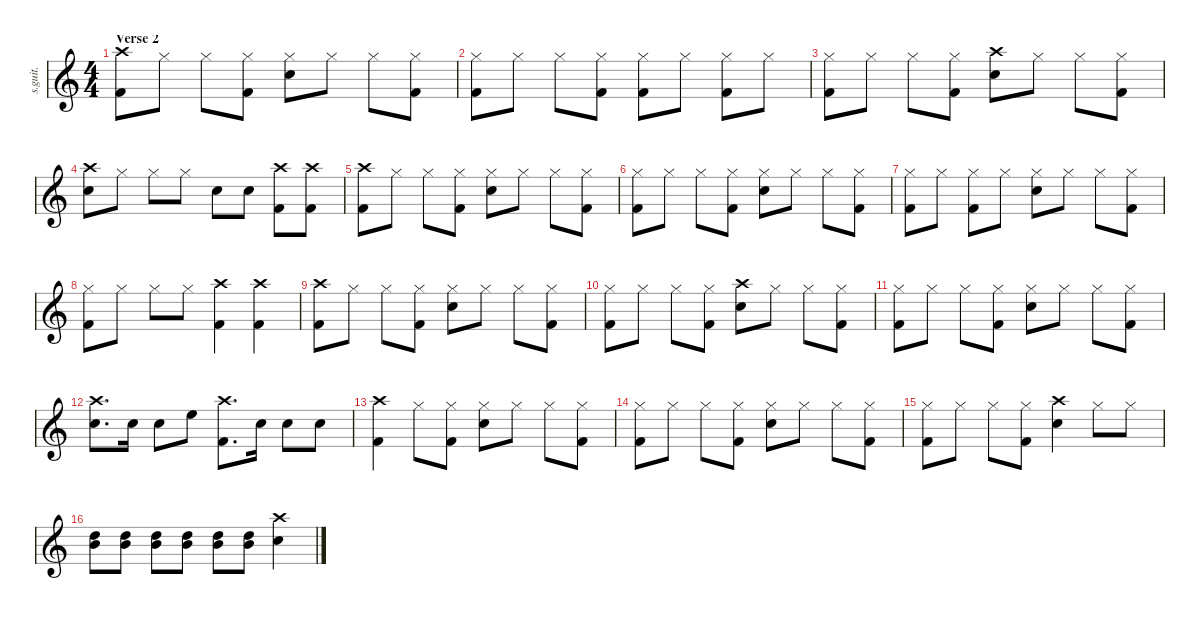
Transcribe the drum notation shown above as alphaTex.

\defaultSystemsLayout 4
\hideDynamics
\bracketExtendMode nobrackets
\track ("Lars Ulrich - Drumzzz" "s.guit.") {instrument percussion}
\staff {score}
\articulation defaults
\ts (4 4)
\section ("" "Verse 2")
\tempo (113 hide)
\clef g2
\ks c
("Crash high (hit)" "Kick (hit) 2").8{lyrics (0 "") lyrics (1 "") lyrics (2 "") lyrics (3 "") lyrics (4 "") dy f} "Hi-Hat (closed)".8{lyrics (0 "") lyrics (1 "") lyrics (2 "") lyrics (3 "") lyrics (4 "")} "Hi-Hat (closed)".8{lyrics (0 "") lyrics (1 "") lyrics (2 "") lyrics (3 "") lyrics (4 "")} ("Hi-Hat (closed)" "Kick (hit) 2").8{lyrics (0 "") lyrics (1 "") lyrics (2 "") lyrics (3 "") lyrics (4 "")} ("Hi-Hat (closed)" "Snare (hit) 2").8{lyrics (0 "") lyrics (1 "") lyrics (2 "") lyrics (3 "") lyrics (4 "")} "Hi-Hat (closed)".8{lyrics (0 "") lyrics (1 "") lyrics (2 "") lyrics (3 "") lyrics (4 "")} "Hi-Hat (closed)".8{lyrics (0 "") lyrics (1 "") lyrics (2 "") lyrics (3 "") lyrics (4 "")} ("Hi-Hat (closed)" "Kick (hit) 2").8{lyrics (0 "") lyrics (1 "") lyrics (2 "") lyrics (3 "") lyrics (4 "")} |
("Hi-Hat (closed)" "Kick (hit) 2").8{lyrics (0 "") lyrics (1 "") lyrics (2 "") lyrics (3 "") lyrics (4 "")} "Hi-Hat (closed)".8{lyrics (0 "") lyrics (1 "") lyrics (2 "") lyrics (3 "") lyrics (4 "")} "Hi-Hat (closed)".8{lyrics (0 "") lyrics (1 "") lyrics (2 "") lyrics (3 "") lyrics (4 "")} ("Hi-Hat (closed)" "Kick (hit) 2").8{lyrics (0 "") lyrics (1 "") lyrics (2 "") lyrics (3 "") lyrics (4 "")} ("Hi-Hat (closed)" "Kick (hit) 2").8{lyrics (0 "") lyrics (1 "") lyrics (2 "") lyrics (3 "") lyrics (4 "")} "Hi-Hat (closed)".8{lyrics (0 "") lyrics (1 "") lyrics (2 "") lyrics (3 "") lyrics (4 "")} ("Hi-Hat (closed)" "Kick (hit) 2").8{lyrics (0 "") lyrics (1 "") lyrics (2 "") lyrics (3 "") lyrics (4 "")} "Hi-Hat (closed)".8{lyrics (0 "") lyrics (1 "") lyrics (2 "") lyrics (3 "") lyrics (4 "")} |
("Hi-Hat (closed)" "Kick (hit) 2").8{lyrics (0 "") lyrics (1 "") lyrics (2 "") lyrics (3 "") lyrics (4 "")} "Hi-Hat (closed)".8{lyrics (0 "") lyrics (1 "") lyrics (2 "") lyrics (3 "") lyrics (4 "")} "Hi-Hat (closed)".8{lyrics (0 "") lyrics (1 "") lyrics (2 "") lyrics (3 "") lyrics (4 "")} ("Hi-Hat (closed)" "Kick (hit) 2").8{lyrics (0 "") lyrics (1 "") lyrics (2 "") lyrics (3 "") lyrics (4 "")} ("Crash high (hit)" "Snare (hit) 2").8{lyrics (0 "") lyrics (1 "") lyrics (2 "") lyrics (3 "") lyrics (4 "")} "Hi-Hat (closed)".8{lyrics (0 "") lyrics (1 "") lyrics (2 "") lyrics (3 "") lyrics (4 "")} "Hi-Hat (closed)".8{lyrics (0 "") lyrics (1 "") lyrics (2 "") lyrics (3 "") lyrics (4 "")} ("Hi-Hat (closed)" "Kick (hit) 2").8{lyrics (0 "") lyrics (1 "") lyrics (2 "") lyrics (3 "") lyrics (4 "")} |
("Crash high (hit)" "Snare (hit) 2").8{lyrics (0 "") lyrics (1 "") lyrics (2 "") lyrics (3 "") lyrics (4 "")} "Hi-Hat (closed)".8{lyrics (0 "") lyrics (1 "") lyrics (2 "") lyrics (3 "") lyrics (4 "")} "Hi-Hat (closed)".8{lyrics (0 "") lyrics (1 "") lyrics (2 "") lyrics (3 "") lyrics (4 "")} "Hi-Hat (closed)".8{lyrics (0 "") lyrics (1 "") lyrics (2 "") lyrics (3 "") lyrics (4 "")} "Snare (hit) 2".8{lyrics (0 "") lyrics (1 "") lyrics (2 "") lyrics (3 "") lyrics (4 "")} "Snare (hit) 2".8{lyrics (0 "") lyrics (1 "") lyrics (2 "") lyrics (3 "") lyrics (4 "")} ("Crash high (hit)" "Kick (hit) 2").8{lyrics (0 "") lyrics (1 "") lyrics (2 "") lyrics (3 "") lyrics (4 "")} ("Crash high (hit)" "Kick (hit) 2").8{lyrics (0 "") lyrics (1 "") lyrics (2 "") lyrics (3 "") lyrics (4 "")} |
("Crash high (hit)" "Kick (hit) 2").8{lyrics (0 "") lyrics (1 "") lyrics (2 "") lyrics (3 "") lyrics (4 "")} "Hi-Hat (closed)".8{lyrics (0 "") lyrics (1 "") lyrics (2 "") lyrics (3 "") lyrics (4 "")} "Hi-Hat (closed)".8{lyrics (0 "") lyrics (1 "") lyrics (2 "") lyrics (3 "") lyrics (4 "")} ("Hi-Hat (closed)" "Kick (hit) 2").8{lyrics (0 "") lyrics (1 "") lyrics (2 "") lyrics (3 "") lyrics (4 "")} ("Hi-Hat (closed)" "Snare (hit) 2").8{lyrics (0 "") lyrics (1 "") lyrics (2 "") lyrics (3 "") lyrics (4 "")} "Hi-Hat (closed)".8{lyrics (0 "") lyrics (1 "") lyrics (2 "") lyrics (3 "") lyrics (4 "")} "Hi-Hat (closed)".8{lyrics (0 "") lyrics (1 "") lyrics (2 "") lyrics (3 "") lyrics (4 "")} ("Hi-Hat (closed)" "Kick (hit) 2").8{lyrics (0 "") lyrics (1 "") lyrics (2 "") lyrics (3 "") lyrics (4 "")} |
("Hi-Hat (closed)" "Kick (hit) 2").8{lyrics (0 "") lyrics (1 "") lyrics (2 "") lyrics (3 "") lyrics (4 "")} "Hi-Hat (closed)".8{lyrics (0 "") lyrics (1 "") lyrics (2 "") lyrics (3 "") lyrics (4 "")} "Hi-Hat (closed)".8{lyrics (0 "") lyrics (1 "") lyrics (2 "") lyrics (3 "") lyrics (4 "")} ("Hi-Hat (closed)" "Kick (hit) 2").8{lyrics (0 "") lyrics (1 "") lyrics (2 "") lyrics (3 "") lyrics (4 "")} ("Hi-Hat (closed)" "Snare (hit) 2").8{lyrics (0 "") lyrics (1 "") lyrics (2 "") lyrics (3 "") lyrics (4 "")} "Hi-Hat (closed)".8{lyrics (0 "") lyrics (1 "") lyrics (2 "") lyrics (3 "") lyrics (4 "")} "Hi-Hat (closed)".8{lyrics (0 "") lyrics (1 "") lyrics (2 "") lyrics (3 "") lyrics (4 "")} ("Hi-Hat (closed)" "Kick (hit) 2").8{lyrics (0 "") lyrics (1 "") lyrics (2 "") lyrics (3 "") lyrics (4 "")} |
("Hi-Hat (closed)" "Kick (hit) 2").8{lyrics (0 "") lyrics (1 "") lyrics (2 "") lyrics (3 "") lyrics (4 "")} "Hi-Hat (closed)".8{lyrics (0 "") lyrics (1 "") lyrics (2 "") lyrics (3 "") lyrics (4 "")} ("Hi-Hat (closed)" "Kick (hit) 2").8{lyrics (0 "") lyrics (1 "") lyrics (2 "") lyrics (3 "") lyrics (4 "")} "Hi-Hat (closed)".8{lyrics (0 "") lyrics (1 "") lyrics (2 "") lyrics (3 "") lyrics (4 "")} ("Hi-Hat (closed)" "Snare (hit) 2").8{lyrics (0 "") lyrics (1 "") lyrics (2 "") lyrics (3 "") lyrics (4 "")} "Hi-Hat (closed)".8{lyrics (0 "") lyrics (1 "") lyrics (2 "") lyrics (3 "") lyrics (4 "")} "Hi-Hat (closed)".8{lyrics (0 "") lyrics (1 "") lyrics (2 "") lyrics (3 "") lyrics (4 "")} ("Hi-Hat (closed)" "Kick (hit) 2").8{lyrics (0 "") lyrics (1 "") lyrics (2 "") lyrics (3 "") lyrics (4 "")} |
("Hi-Hat (closed)" "Kick (hit) 2").8{lyrics (0 "") lyrics (1 "") lyrics (2 "") lyrics (3 "") lyrics (4 "")} "Hi-Hat (closed)".8{lyrics (0 "") lyrics (1 "") lyrics (2 "") lyrics (3 "") lyrics (4 "")} "Hi-Hat (closed)".8{lyrics (0 "") lyrics (1 "") lyrics (2 "") lyrics (3 "") lyrics (4 "")} "Hi-Hat (closed)".8{lyrics (0 "") lyrics (1 "") lyrics (2 "") lyrics (3 "") lyrics (4 "")} ("Crash high (hit)" "Kick (hit) 2").4{lyrics (0 "") lyrics (1 "") lyrics (2 "") lyrics (3 "") lyrics (4 "")} ("Crash high (hit)" "Kick (hit) 2").4{lyrics (0 "") lyrics (1 "") lyrics (2 "") lyrics (3 "") lyrics (4 "")} |
("Crash high (hit)" "Kick (hit) 2").8{lyrics (0 "") lyrics (1 "") lyrics (2 "") lyrics (3 "") lyrics (4 "")} "Hi-Hat (closed)".8{lyrics (0 "") lyrics (1 "") lyrics (2 "") lyrics (3 "") lyrics (4 "")} "Hi-Hat (closed)".8{lyrics (0 "") lyrics (1 "") lyrics (2 "") lyrics (3 "") lyrics (4 "")} ("Hi-Hat (closed)" "Kick (hit) 2").8{lyrics (0 "") lyrics (1 "") lyrics (2 "") lyrics (3 "") lyrics (4 "")} ("Hi-Hat (closed)" "Snare (hit) 2").8{lyrics (0 "") lyrics (1 "") lyrics (2 "") lyrics (3 "") lyrics (4 "")} "Hi-Hat (closed)".8{lyrics (0 "") lyrics (1 "") lyrics (2 "") lyrics (3 "") lyrics (4 "")} "Hi-Hat (closed)".8{lyrics (0 "") lyrics (1 "") lyrics (2 "") lyrics (3 "") lyrics (4 "")} ("Hi-Hat (closed)" "Kick (hit) 2").8{lyrics (0 "") lyrics (1 "") lyrics (2 "") lyrics (3 "") lyrics (4 "")} |
("Hi-Hat (closed)" "Kick (hit) 2").8{lyrics (0 "") lyrics (1 "") lyrics (2 "") lyrics (3 "") lyrics (4 "")} "Hi-Hat (closed)".8{lyrics (0 "") lyrics (1 "") lyrics (2 "") lyrics (3 "") lyrics (4 "")} "Hi-Hat (closed)".8{lyrics (0 "") lyrics (1 "") lyrics (2 "") lyrics (3 "") lyrics (4 "")} ("Hi-Hat (closed)" "Kick (hit) 2").8{lyrics (0 "") lyrics (1 "") lyrics (2 "") lyrics (3 "") lyrics (4 "")} ("Crash high (hit)" "Snare (hit) 2").8{lyrics (0 "") lyrics (1 "") lyrics (2 "") lyrics (3 "") lyrics (4 "")} "Hi-Hat (closed)".8{lyrics (0 "") lyrics (1 "") lyrics (2 "") lyrics (3 "") lyrics (4 "")} "Hi-Hat (closed)".8{lyrics (0 "") lyrics (1 "") lyrics (2 "") lyrics (3 "") lyrics (4 "")} ("Hi-Hat (closed)" "Kick (hit) 2").8{lyrics (0 "") lyrics (1 "") lyrics (2 "") lyrics (3 "") lyrics (4 "")} |
("Hi-Hat (closed)" "Kick (hit) 2").8{lyrics (0 "") lyrics (1 "") lyrics (2 "") lyrics (3 "") lyrics (4 "")} "Hi-Hat (closed)".8{lyrics (0 "") lyrics (1 "") lyrics (2 "") lyrics (3 "") lyrics (4 "")} "Hi-Hat (closed)".8{lyrics (0 "") lyrics (1 "") lyrics (2 "") lyrics (3 "") lyrics (4 "")} ("Hi-Hat (closed)" "Kick (hit) 2").8{lyrics (0 "") lyrics (1 "") lyrics (2 "") lyrics (3 "") lyrics (4 "")} ("Hi-Hat (closed)" "Snare (hit) 2").8{lyrics (0 "") lyrics (1 "") lyrics (2 "") lyrics (3 "") lyrics (4 "")} "Hi-Hat (closed)".8{lyrics (0 "") lyrics (1 "") lyrics (2 "") lyrics (3 "") lyrics (4 "")} "Hi-Hat (closed)".8{lyrics (0 "") lyrics (1 "") lyrics (2 "") lyrics (3 "") lyrics (4 "")} ("Hi-Hat (closed)" "Kick (hit) 2").8{lyrics (0 "") lyrics (1 "") lyrics (2 "") lyrics (3 "") lyrics (4 "")} |
("Crash high (hit)" "Snare (hit) 2").8{d lyrics (0 "") lyrics (1 "") lyrics (2 "") lyrics (3 "") lyrics (4 "")} "Snare (hit) 2".16{lyrics (0 "") lyrics (1 "") lyrics (2 "") lyrics (3 "") lyrics (4 "")} "Snare (hit) 2".8{lyrics (0 "") lyrics (1 "") lyrics (2 "") lyrics (3 "") lyrics (4 "")} "High Floor Tom (hit)".8{lyrics (0 "") lyrics (1 "") lyrics (2 "") lyrics (3 "") lyrics (4 "")} ("Crash high (hit)" "Kick (hit) 2").8{d lyrics (0 "") lyrics (1 "") lyrics (2 "") lyrics (3 "") lyrics (4 "")} "Snare (hit) 2".16{lyrics (0 "") lyrics (1 "") lyrics (2 "") lyrics (3 "") lyrics (4 "")} "Snare (hit) 2".8{lyrics (0 "") lyrics (1 "") lyrics (2 "") lyrics (3 "") lyrics (4 "")} "Snare (hit) 2".8{lyrics (0 "") lyrics (1 "") lyrics (2 "") lyrics (3 "") lyrics (4 "")} |
("Crash high (hit)" "Kick (hit) 2").4{lyrics (0 "") lyrics (1 "") lyrics (2 "") lyrics (3 "") lyrics (4 "")} "Hi-Hat (closed)".8{lyrics (0 "") lyrics (1 "") lyrics (2 "") lyrics (3 "") lyrics (4 "")} ("Hi-Hat (closed)" "Kick (hit) 2").8{lyrics (0 "") lyrics (1 "") lyrics (2 "") lyrics (3 "") lyrics (4 "")} ("Hi-Hat (closed)" "Snare (hit) 2").8{lyrics (0 "") lyrics (1 "") lyrics (2 "") lyrics (3 "") lyrics (4 "")} "Hi-Hat (closed)".8{lyrics (0 "") lyrics (1 "") lyrics (2 "") lyrics (3 "") lyrics (4 "")} "Hi-Hat (closed)".8{lyrics (0 "") lyrics (1 "") lyrics (2 "") lyrics (3 "") lyrics (4 "")} ("Hi-Hat (closed)" "Kick (hit) 2").8{lyrics (0 "") lyrics (1 "") lyrics (2 "") lyrics (3 "") lyrics (4 "")} |
("Hi-Hat (closed)" "Kick (hit) 2").8{lyrics (0 "") lyrics (1 "") lyrics (2 "") lyrics (3 "") lyrics (4 "")} "Hi-Hat (closed)".8{lyrics (0 "") lyrics (1 "") lyrics (2 "") lyrics (3 "") lyrics (4 "")} "Hi-Hat (closed)".8{lyrics (0 "") lyrics (1 "") lyrics (2 "") lyrics (3 "") lyrics (4 "")} ("Hi-Hat (closed)" "Kick (hit) 2").8{lyrics (0 "") lyrics (1 "") lyrics (2 "") lyrics (3 "") lyrics (4 "")} ("Hi-Hat (closed)" "Snare (hit) 2").8{lyrics (0 "") lyrics (1 "") lyrics (2 "") lyrics (3 "") lyrics (4 "")} "Hi-Hat (closed)".8{lyrics (0 "") lyrics (1 "") lyrics (2 "") lyrics (3 "") lyrics (4 "")} "Hi-Hat (closed)".8{lyrics (0 "") lyrics (1 "") lyrics (2 "") lyrics (3 "") lyrics (4 "")} ("Hi-Hat (closed)" "Kick (hit) 2").8{lyrics (0 "") lyrics (1 "") lyrics (2 "") lyrics (3 "") lyrics (4 "")} |
("Hi-Hat (closed)" "Kick (hit) 2").8{lyrics (0 "") lyrics (1 "") lyrics (2 "") lyrics (3 "") lyrics (4 "")} "Hi-Hat (closed)".8{lyrics (0 "") lyrics (1 "") lyrics (2 "") lyrics (3 "") lyrics (4 "")} "Hi-Hat (closed)".8{lyrics (0 "") lyrics (1 "") lyrics (2 "") lyrics (3 "") lyrics (4 "")} ("Hi-Hat (closed)" "Kick (hit) 2").8{lyrics (0 "") lyrics (1 "") lyrics (2 "") lyrics (3 "") lyrics (4 "")} ("Crash high (hit)" "Snare (hit) 2").4{lyrics (0 "") lyrics (1 "") lyrics (2 "") lyrics (3 "") lyrics (4 "")} "Hi-Hat (closed)".8{lyrics (0 "") lyrics (1 "") lyrics (2 "") lyrics (3 "") lyrics (4 "")} "Hi-Hat (closed)".8{lyrics (0 "") lyrics (1 "") lyrics (2 "") lyrics (3 "") lyrics (4 "")} |
("Mid Tom (hit)" "High Tom (hit)").8{lyrics (0 "") lyrics (1 "") lyrics (2 "") lyrics (3 "") lyrics (4 "")} ("Mid Tom (hit)" "High Tom (hit)").8{lyrics (0 "") lyrics (1 "") lyrics (2 "") lyrics (3 "") lyrics (4 "")} ("Mid Tom (hit)" "High Tom (hit)").8{lyrics (0 "") lyrics (1 "") lyrics (2 "") lyrics (3 "") lyrics (4 "")} ("Mid Tom (hit)" "High Tom (hit)").8{lyrics (0 "") lyrics (1 "") lyrics (2 "") lyrics (3 "") lyrics (4 "")} ("Mid Tom (hit)" "High Tom (hit)").8{lyrics (0 "") lyrics (1 "") lyrics (2 "") lyrics (3 "") lyrics (4 "")} ("Mid Tom (hit)" "High Tom (hit)").8{lyrics (0 "") lyrics (1 "") lyrics (2 "") lyrics (3 "") lyrics (4 "")} ("Crash high (hit)" "Snare (hit) 2").4{lyrics (0 "") lyrics (1 "") lyrics (2 "") lyrics (3 "") lyrics (4 "")}
